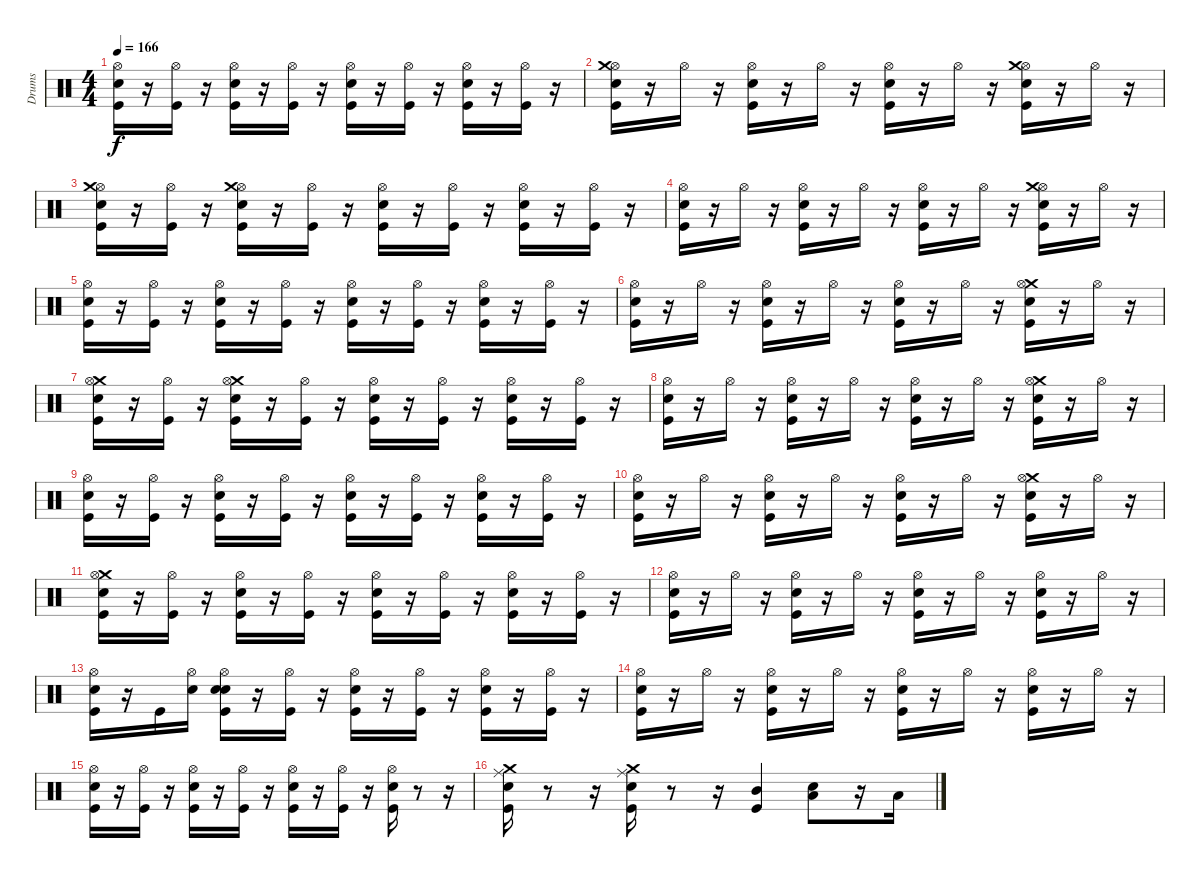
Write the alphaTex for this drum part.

\track ("Drums" "Drums") {instrument percussion}
\staff {score}
\articulation defaults
\ts (4 4)
\tempo 166
\clef neutral
\ks c
("Kick (hit)" "Electric Snare (hit)" "Hi-Hat (open)").16{dy f} r.16 ("Kick (hit)" "Hi-Hat (open)").16 r.16 ("Kick (hit)" "Hi-Hat (open)" "Electric Snare (hit)").16 r.16 ("Hi-Hat (open)" "Kick (hit)").16 r.16 ("Kick (hit)" "Hi-Hat (open)" "Electric Snare (hit)").16 r.16 ("Hi-Hat (open)" "Kick (hit)").16 r.16 ("Kick (hit)" "Hi-Hat (open)" "Electric Snare (hit)").16 r.16 ("Kick (hit)" "Hi-Hat (open)").16 r.16 |
("Kick (hit)" "Electric Snare (hit)" "Hi-Hat (open)" "Crash medium (hit)").16 r.16 "Hi-Hat (open)".16 r.16 ("Kick (hit)" "Hi-Hat (open)" "Electric Snare (hit)").16 r.16 "Hi-Hat (open)".16 r.16 ("Kick (hit)" "Hi-Hat (open)" "Electric Snare (hit)").16 r.16 "Hi-Hat (open)".16 r.16 ("Kick (hit)" "Hi-Hat (open)" "Electric Snare (hit)" "Crash medium (hit)").16 r.16 "Hi-Hat (open)".16 r.16 |
("Kick (hit)" "Electric Snare (hit)" "Hi-Hat (open)" "Crash medium (hit)").16 r.16 ("Kick (hit)" "Hi-Hat (open)").16 r.16 ("Kick (hit)" "Hi-Hat (open)" "Electric Snare (hit)" "Crash medium (hit)").16 r.16 ("Hi-Hat (open)" "Kick (hit)").16 r.16 ("Kick (hit)" "Hi-Hat (open)" "Electric Snare (hit)").16 r.16 ("Hi-Hat (open)" "Kick (hit)").16 r.16 ("Kick (hit)" "Hi-Hat (open)" "Electric Snare (hit)").16 r.16 ("Kick (hit)" "Hi-Hat (open)").16 r.16 |
("Kick (hit)" "Electric Snare (hit)" "Hi-Hat (open)").16 r.16 "Hi-Hat (open)".16 r.16 ("Kick (hit)" "Hi-Hat (open)" "Electric Snare (hit)").16 r.16 "Hi-Hat (open)".16 r.16 ("Kick (hit)" "Hi-Hat (open)" "Electric Snare (hit)").16 r.16 "Hi-Hat (open)".16 r.16 ("Kick (hit)" "Hi-Hat (open)" "Electric Snare (hit)" "Crash medium (hit)").16 r.16 "Hi-Hat (open)".16 r.16 |
("Kick (hit)" "Electric Snare (hit)" "Hi-Hat (open)").16 r.16 ("Kick (hit)" "Hi-Hat (open)").16 r.16 ("Kick (hit)" "Hi-Hat (open)" "Electric Snare (hit)").16 r.16 ("Hi-Hat (open)" "Kick (hit)").16 r.16 ("Kick (hit)" "Hi-Hat (open)" "Electric Snare (hit)").16 r.16 ("Hi-Hat (open)" "Kick (hit)").16 r.16 ("Kick (hit)" "Hi-Hat (open)" "Electric Snare (hit)").16 r.16 ("Kick (hit)" "Hi-Hat (open)").16 r.16 |
("Kick (hit)" "Electric Snare (hit)" "Hi-Hat (open)").16 r.16 "Hi-Hat (open)".16 r.16 ("Kick (hit)" "Electric Snare (hit)" "Hi-Hat (open)").16 r.16 "Hi-Hat (open)".16 r.16 ("Electric Snare (hit)" "Kick (hit)" "Hi-Hat (open)").16 r.16 "Hi-Hat (open)".16 r.16 ("Kick (hit)" "Electric Snare (hit)" "Crash medium (hit)" "Hi-Hat (open)").16 r.16 "Hi-Hat (open)".16 r.16 |
("Kick (hit)" "Electric Snare (hit)" "Crash medium (hit)" "Hi-Hat (open)").16 r.16 ("Kick (hit)" "Hi-Hat (open)").16 r.16 ("Kick (hit)" "Electric Snare (hit)" "Crash medium (hit)" "Hi-Hat (open)").16 r.16 ("Kick (hit)" "Hi-Hat (open)").16 r.16 ("Kick (hit)" "Electric Snare (hit)" "Hi-Hat (open)").16 r.16 ("Kick (hit)" "Hi-Hat (open)").16 r.16 ("Kick (hit)" "Electric Snare (hit)" "Hi-Hat (open)").16 r.16 ("Kick (hit)" "Hi-Hat (open)").16 r.16 |
("Kick (hit)" "Electric Snare (hit)" "Hi-Hat (open)").16 r.16 "Hi-Hat (open)".16 r.16 ("Kick (hit)" "Electric Snare (hit)" "Hi-Hat (open)").16 r.16 "Hi-Hat (open)".16 r.16 ("Electric Snare (hit)" "Kick (hit)" "Hi-Hat (open)").16 r.16 "Hi-Hat (open)".16 r.16 ("Kick (hit)" "Electric Snare (hit)" "Crash medium (hit)" "Hi-Hat (open)").16 r.16 "Hi-Hat (open)".16 r.16 |
("Kick (hit)" "Electric Snare (hit)" "Hi-Hat (open)").16 r.16 ("Kick (hit)" "Hi-Hat (open)").16 r.16 ("Kick (hit)" "Electric Snare (hit)" "Hi-Hat (open)").16 r.16 ("Kick (hit)" "Hi-Hat (open)").16 r.16 ("Kick (hit)" "Electric Snare (hit)" "Hi-Hat (open)").16 r.16 ("Kick (hit)" "Hi-Hat (open)").16 r.16 ("Kick (hit)" "Electric Snare (hit)" "Hi-Hat (open)").16 r.16 ("Kick (hit)" "Hi-Hat (open)").16 r.16 |
("Kick (hit)" "Electric Snare (hit)" "Hi-Hat (open)").16 r.16 "Hi-Hat (open)".16 r.16 ("Kick (hit)" "Electric Snare (hit)" "Hi-Hat (open)").16 r.16 "Hi-Hat (open)".16 r.16 ("Electric Snare (hit)" "Kick (hit)" "Hi-Hat (open)").16 r.16 "Hi-Hat (open)".16 r.16 ("Kick (hit)" "Electric Snare (hit)" "Crash medium (hit)" "Hi-Hat (open)").16 r.16 "Hi-Hat (open)".16 r.16 |
("Kick (hit)" "Crash medium (hit)" "Electric Snare (hit)" "Hi-Hat (open)").16 r.16 ("Kick (hit)" "Hi-Hat (open)").16 r.16 ("Kick (hit)" "Electric Snare (hit)" "Hi-Hat (open)").16 r.16 ("Kick (hit)" "Hi-Hat (open)").16 r.16 ("Kick (hit)" "Electric Snare (hit)" "Hi-Hat (open)").16 r.16 ("Kick (hit)" "Hi-Hat (open)").16 r.16 ("Kick (hit)" "Electric Snare (hit)" "Hi-Hat (open)").16 r.16 ("Kick (hit)" "Hi-Hat (open)").16 r.16 |
("Kick (hit)" "Electric Snare (hit)" "Hi-Hat (open)").16 r.16 "Hi-Hat (open)".16 r.16 ("Kick (hit)" "Electric Snare (hit)" "Hi-Hat (open)").16 r.16 "Hi-Hat (open)".16 r.16 ("Electric Snare (hit)" "Kick (hit)" "Hi-Hat (open)").16 r.16 "Hi-Hat (open)".16 r.16 ("Kick (hit)" "Electric Snare (hit)" "Hi-Hat (open)").16 r.16 "Hi-Hat (open)".16 r.16 |
("Kick (hit)" "Electric Snare (hit)" "Hi-Hat (open)").16 r.16 "Kick (hit)".16 ("Snare (hit)" "Hi-Hat (open)").16 ("Snare (hit)" "Kick (hit)" "Electric Snare (hit)" "Hi-Hat (open)").16 r.16 ("Kick (hit)" "Hi-Hat (open)").16 r.16 ("Kick (hit)" "Electric Snare (hit)" "Hi-Hat (open)").16 r.16 ("Kick (hit)" "Hi-Hat (open)").16 r.16 ("Kick (hit)" "Electric Snare (hit)" "Hi-Hat (open)").16 r.16 ("Kick (hit)" "Hi-Hat (open)").16 r.16 |
("Kick (hit)" "Electric Snare (hit)" "Hi-Hat (open)").16 r.16 "Hi-Hat (open)".16 r.16 ("Kick (hit)" "Electric Snare (hit)" "Hi-Hat (open)").16 r.16 "Hi-Hat (open)".16 r.16 ("Electric Snare (hit)" "Kick (hit)" "Hi-Hat (open)").16 r.16 "Hi-Hat (open)".16 r.16 ("Kick (hit)" "Electric Snare (hit)" "Hi-Hat (open)").16 r.16 "Hi-Hat (open)".16 r.16 |
("Kick (hit)" "Electric Snare (hit)" "Hi-Hat (open)").16 r.16 ("Kick (hit)" "Hi-Hat (open)").16 r.16 ("Kick (hit)" "Electric Snare (hit)" "Hi-Hat (open)").16 r.16 ("Kick (hit)" "Hi-Hat (open)").16 r.16 ("Kick (hit)" "Electric Snare (hit)" "Hi-Hat (open)").16 r.16 ("Kick (hit)" "Hi-Hat (open)").16 r.16 ("Kick (hit)" "Electric Snare (hit)" "Hi-Hat (open)").16 r.8 r.16 |
("Ride (middle)" "Crash medium (hit)" "Kick (hit)" "Electric Snare (hit)").16 r.8 r.16 ("Kick (hit)" "Crash medium (hit)" "Electric Snare (hit)" "Ride (middle)").16 r.8 r.16 ("Kick (hit)" "Mid Tom (hit)").4 ("Snare (hit)" "Low Tom (hit)").8 r.16 "Low Tom (hit)".16
